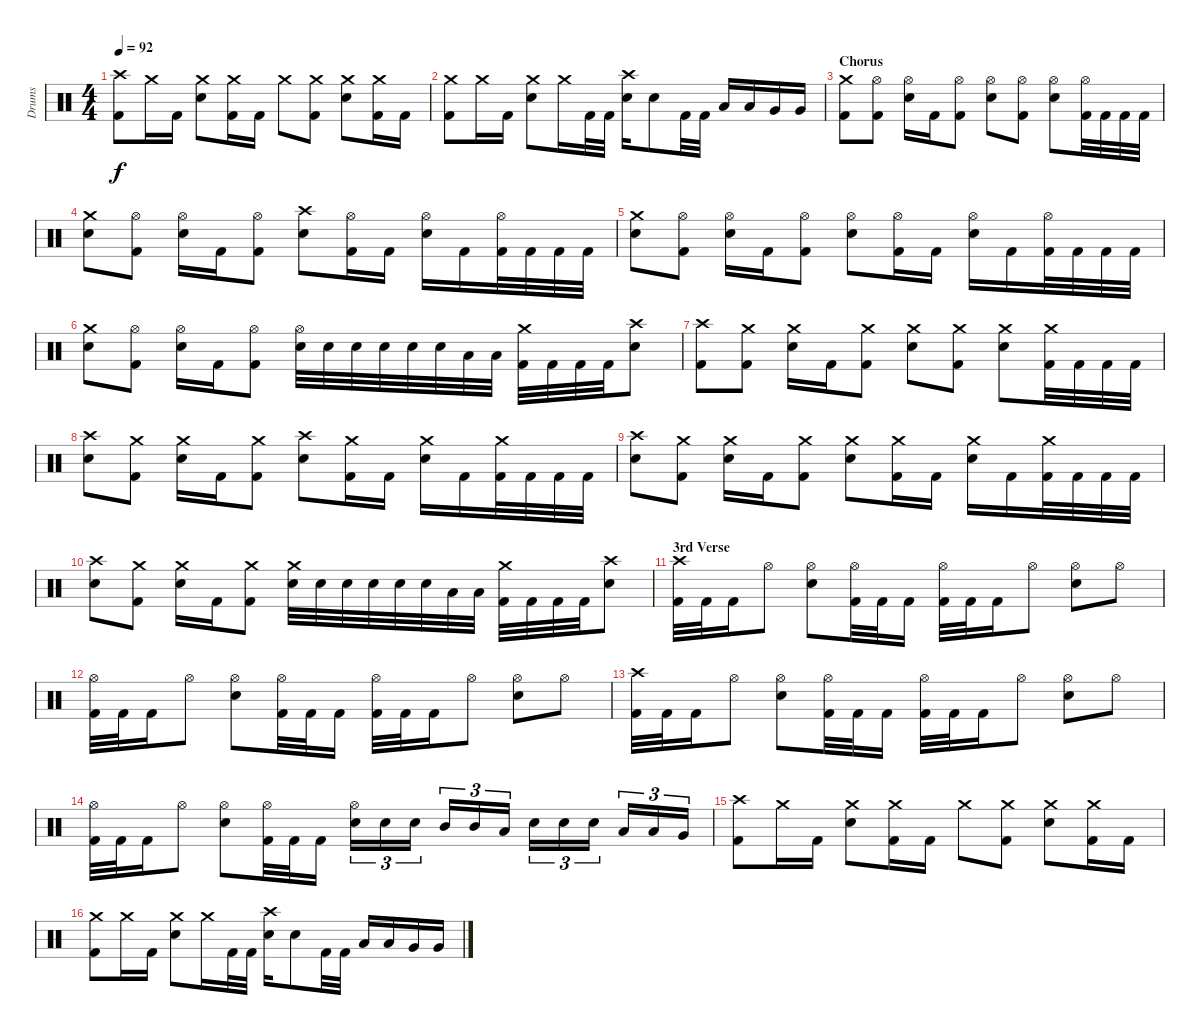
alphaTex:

\track ("Drums" "Drums") {instrument percussion}
\staff {score}
\articulation defaults
\ts (4 4)
\tempo 92
\clef neutral
\ks c
("Kick (hit) 2" "Crash high (hit)").8{dy f} "Crash medium (hit)".16 "Kick (hit) 2".16 ("Electric Snare (hit)" "Crash medium (hit)").8 ("Kick (hit) 2" "Crash medium (hit)").16 "Kick (hit) 2".16 "Crash medium (hit)".8 ("Kick (hit) 2" "Crash medium (hit)").8 ("Electric Snare (hit)" "Crash medium (hit)").8 ("Kick (hit) 2" "Crash medium (hit)").16 "Kick (hit) 2".16 |
("Kick (hit) 2" "Crash medium (hit)").8 "Crash medium (hit)".16 "Kick (hit) 2".16 ("Electric Snare (hit)" "Crash medium (hit)").8 "Crash medium (hit)".16 "Kick (hit) 2".32 "Kick (hit) 2".32 ("Electric Snare (hit)" "Crash high (hit)").16 "Electric Snare (hit)".8 "Kick (hit) 2".32 "Kick (hit) 2".32 "Low Tom (hit)".16 "Low Tom (hit)".16 "Very Low Tom (hit)".16 "Very Low Tom (hit)".16 |
\section ("" "Chorus")
("Kick (hit) 2" "Crash medium (hit)").8 ("Kick (hit) 2" "Hi-Hat (open)").8 ("Electric Snare (hit)" "Hi-Hat (open)").16 "Kick (hit) 2".16 ("Kick (hit) 2" "Hi-Hat (open)").8 ("Electric Snare (hit)" "Hi-Hat (open)").8 ("Kick (hit) 2" "Hi-Hat (open)").8 ("Electric Snare (hit)" "Hi-Hat (open)").8 ("Kick (hit) 2" "Hi-Hat (open)").32 "Kick (hit) 2".32 "Kick (hit) 2".32 "Kick (hit) 2".32 |
("Electric Snare (hit)" "Crash medium (hit)").8 ("Kick (hit) 2" "Hi-Hat (open)").8 ("Electric Snare (hit)" "Hi-Hat (open)").16 "Kick (hit) 2".16 ("Kick (hit) 2" "Hi-Hat (open)").8 ("Electric Snare (hit)" "Crash high (hit)").8 ("Kick (hit) 2" "Hi-Hat (open)").16 "Kick (hit) 2".16 ("Electric Snare (hit)" "Hi-Hat (open)").16 "Kick (hit) 2".16 ("Kick (hit) 2" "Hi-Hat (open)").32 "Kick (hit) 2".32 "Kick (hit) 2".32 "Kick (hit) 2".32 |
("Electric Snare (hit)" "Crash medium (hit)").8 ("Kick (hit) 2" "Hi-Hat (open)").8 ("Electric Snare (hit)" "Hi-Hat (open)").16 "Kick (hit) 2".16 ("Kick (hit) 2" "Hi-Hat (open)").8 ("Electric Snare (hit)" "Hi-Hat (open)").8 ("Kick (hit) 2" "Hi-Hat (open)").16 "Kick (hit) 2".16 ("Electric Snare (hit)" "Hi-Hat (open)").16 "Kick (hit) 2".16 ("Kick (hit) 2" "Hi-Hat (open)").32 "Kick (hit) 2".32 "Kick (hit) 2".32 "Kick (hit) 2".32 |
("Electric Snare (hit)" "Crash medium (hit)").8 ("Kick (hit) 2" "Hi-Hat (open)").8 ("Electric Snare (hit)" "Hi-Hat (open)").16 "Kick (hit) 2".16 ("Kick (hit) 2" "Hi-Hat (open)").8 ("Electric Snare (hit)" "Hi-Hat (open)").32 "Electric Snare (hit)".32 "Electric Snare (hit)".32 "Electric Snare (hit)".32 "Electric Snare (hit)".32 "Electric Snare (hit)".32 "Low Tom (hit)".32 "Low Tom (hit)".32 ("Kick (hit) 2" "Crash medium (hit)").32 "Kick (hit) 2".32 "Kick (hit) 2".32 "Kick (hit) 2".32 ("Electric Snare (hit)" "Crash high (hit)").8 |
("Kick (hit) 2" "Crash high (hit)").8 ("Kick (hit) 2" "Crash medium (hit)").8 ("Electric Snare (hit)" "Crash medium (hit)").16 "Kick (hit) 2".16 ("Kick (hit) 2" "Crash medium (hit)").8 ("Electric Snare (hit)" "Crash medium (hit)").8 ("Kick (hit) 2" "Crash medium (hit)").8 ("Electric Snare (hit)" "Crash medium (hit)").8 ("Kick (hit) 2" "Crash medium (hit)").32 "Kick (hit) 2".32 "Kick (hit) 2".32 "Kick (hit) 2".32 |
("Electric Snare (hit)" "Crash high (hit)").8 ("Kick (hit) 2" "Crash medium (hit)").8 ("Electric Snare (hit)" "Crash medium (hit)").16 "Kick (hit) 2".16 ("Kick (hit) 2" "Crash medium (hit)").8 ("Electric Snare (hit)" "Crash high (hit)").8 ("Kick (hit) 2" "Crash medium (hit)").16 "Kick (hit) 2".16 ("Electric Snare (hit)" "Crash medium (hit)").16 "Kick (hit) 2".16 ("Kick (hit) 2" "Crash medium (hit)").32 "Kick (hit) 2".32 "Kick (hit) 2".32 "Kick (hit) 2".32 |
("Electric Snare (hit)" "Crash high (hit)").8 ("Kick (hit) 2" "Crash medium (hit)").8 ("Electric Snare (hit)" "Crash medium (hit)").16 "Kick (hit) 2".16 ("Kick (hit) 2" "Crash medium (hit)").8 ("Electric Snare (hit)" "Crash medium (hit)").8 ("Kick (hit) 2" "Crash medium (hit)").16 "Kick (hit) 2".16 ("Electric Snare (hit)" "Crash medium (hit)").16 "Kick (hit) 2".16 ("Kick (hit) 2" "Crash medium (hit)").32 "Kick (hit) 2".32 "Kick (hit) 2".32 "Kick (hit) 2".32 |
("Electric Snare (hit)" "Crash high (hit)").8 ("Kick (hit) 2" "Crash medium (hit)").8 ("Electric Snare (hit)" "Crash medium (hit)").16 "Kick (hit) 2".16 ("Kick (hit) 2" "Crash medium (hit)").8 ("Electric Snare (hit)" "Crash medium (hit)").32 "Electric Snare (hit)".32 "Electric Snare (hit)".32 "Electric Snare (hit)".32 "Electric Snare (hit)".32 "Electric Snare (hit)".32 "Low Tom (hit)".32 "Low Tom (hit)".32 ("Kick (hit) 2" "Crash medium (hit)").32 "Kick (hit) 2".32 "Kick (hit) 2".32 "Kick (hit) 2".32 ("Electric Snare (hit)" "Crash high (hit)").8 |
\section ("" "3rd Verse")
("Kick (hit) 2" "Crash high (hit)").32 "Kick (hit) 2".32 "Kick (hit) 2".16 "Hi-Hat (open)".8 ("Electric Snare (hit)" "Hi-Hat (open)").8 ("Kick (hit) 2" "Hi-Hat (open)").32 "Kick (hit) 2".32 "Kick (hit) 2".16 ("Kick (hit) 2" "Hi-Hat (open)").32 "Kick (hit) 2".32 "Kick (hit) 2".16 "Hi-Hat (open)".8 ("Electric Snare (hit)" "Hi-Hat (open)").8 "Hi-Hat (open)".8 |
("Kick (hit) 2" "Hi-Hat (open)").32 "Kick (hit) 2".32 "Kick (hit) 2".16 "Hi-Hat (open)".8 ("Electric Snare (hit)" "Hi-Hat (open)").8 ("Kick (hit) 2" "Hi-Hat (open)").32 "Kick (hit) 2".32 "Kick (hit) 2".16 ("Kick (hit) 2" "Hi-Hat (open)").32 "Kick (hit) 2".32 "Kick (hit) 2".16 "Hi-Hat (open)".8 ("Electric Snare (hit)" "Hi-Hat (open)").8 "Hi-Hat (open)".8 |
("Kick (hit) 2" "Crash high (hit)").32 "Kick (hit) 2".32 "Kick (hit) 2".16 "Hi-Hat (open)".8 ("Electric Snare (hit)" "Hi-Hat (open)").8 ("Kick (hit) 2" "Hi-Hat (open)").32 "Kick (hit) 2".32 "Kick (hit) 2".16 ("Kick (hit) 2" "Hi-Hat (open)").32 "Kick (hit) 2".32 "Kick (hit) 2".16 "Hi-Hat (open)".8 ("Electric Snare (hit)" "Hi-Hat (open)").8 "Hi-Hat (open)".8 |
("Kick (hit) 2" "Hi-Hat (open)").32 "Kick (hit) 2".32 "Kick (hit) 2".16 "Hi-Hat (open)".8 ("Electric Snare (hit)" "Hi-Hat (open)").8 ("Kick (hit) 2" "Hi-Hat (open)").32 "Kick (hit) 2".32 "Kick (hit) 2".16 ("Electric Snare (hit)" "Hi-Hat (open)").16{tu (3 2)} "Electric Snare (hit)".16{tu (3 2)} "Electric Snare (hit)".16{tu (3 2)} "Mid Tom (hit)".16{tu (3 2)} "Mid Tom (hit)".16{tu (3 2)} "Low Tom (hit)".16{tu (3 2)} "Electric Snare (hit)".16{tu (3 2)} "Electric Snare (hit)".16{tu (3 2)} "Electric Snare (hit)".16{tu (3 2)} "Low Tom (hit)".16{tu (3 2)} "Low Tom (hit)".16{tu (3 2)} "Very Low Tom (hit)".16{tu (3 2)} |
("Kick (hit) 2" "Crash high (hit)").8 "Crash medium (hit)".16 "Kick (hit) 2".16 ("Electric Snare (hit)" "Crash medium (hit)").8 ("Kick (hit) 2" "Crash medium (hit)").16 "Kick (hit) 2".16 "Crash medium (hit)".8 ("Kick (hit) 2" "Crash medium (hit)").8 ("Electric Snare (hit)" "Crash medium (hit)").8 ("Kick (hit) 2" "Crash medium (hit)").16 "Kick (hit) 2".16 |
("Kick (hit) 2" "Crash medium (hit)").8 "Crash medium (hit)".16 "Kick (hit) 2".16 ("Electric Snare (hit)" "Crash medium (hit)").8 "Crash medium (hit)".16 "Kick (hit) 2".32 "Kick (hit) 2".32 ("Electric Snare (hit)" "Crash high (hit)").16 "Electric Snare (hit)".8 "Kick (hit) 2".32 "Kick (hit) 2".32 "Low Tom (hit)".16 "Low Tom (hit)".16 "Very Low Tom (hit)".16 "Very Low Tom (hit)".16
